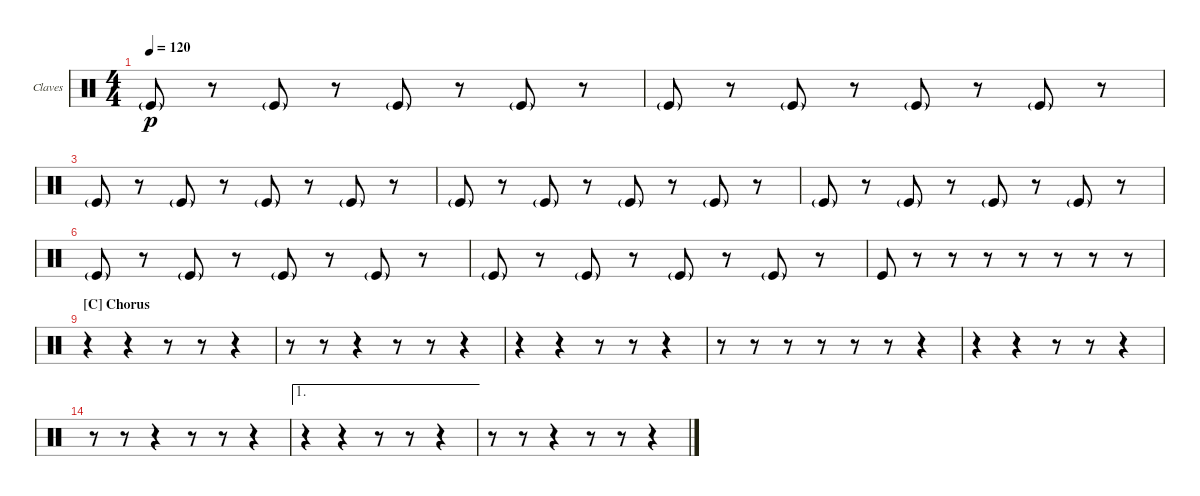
\bracketExtendMode nobrackets
\firstSystemTrackNameOrientation horizontal
\otherSystemsTrackNameOrientation horizontal
\defaultBarNumberDisplay FirstOfSystem
\track ("Claves" "Claves") {instrument percussion}
\staff {score}
\articulation defaults
\ts (4 4)
\scale
0.25
\tempo 120
\accidentals auto
\clef neutral
\ottava regular
\simile none
\scale
0.264151
\ks c "Kick (hit)"{g}.8{dy p}
r.8 "Kick (hit)"{g}.8 r.8 "Kick (hit)"{g}.8 r.8 "Kick (hit)"{g}.8 r.8 |
\scale
0.25
\scale
0.245283 "Kick (hit)"{g}.8 r.8 "Kick (hit)"{g}.8 r.8 "Kick (hit)"{g}.8 r.8 "Kick (hit)"{g}.8 r.8 |
\scale
0.25
\scale
0.245283 "Kick (hit)"{g}.8 r.8 "Kick (hit)"{g}.8 r.8 "Kick (hit)"{g}.8 r.8 "Kick (hit)"{g}.8 r.8 |
\scale
0.25
\scale
0.245283 "Kick (hit)"{g}.8 r.8 "Kick (hit)"{g}.8 r.8 "Kick (hit)"{g}.8 r.8 "Kick (hit)"{g}.8 r.8 |
\scale
0.21875
\scale
0.197269 "Kick (hit)"{g}.8 r.8 "Kick (hit)"{g}.8 r.8 "Kick (hit)"{g}.8 r.8 "Kick (hit)"{g}.8 r.8 |
\scale
0.21875
\scale
0.227618 "Kick (hit)"{g}.8 r.8 "Kick (hit)"{g}.8 r.8 "Kick (hit)"{g}.8 r.8 "Kick (hit)"{g}.8 r.8 |
\scale
0.21875
\scale
0.212443 "Kick (hit)"{g}.8 r.8 "Kick (hit)"{g}.8 r.8 "Kick (hit)"{g}.8 r.8 "Kick (hit)"{g}.8 r.8 |
\scale
0.34375
\scale
0.362671 "Kick (hit)".8 r.8 r.8 r.8 r.8 r.8 r.8 r.8 |
\section ("C" "Chorus")
\scale
0.25
\scale
0.236364 r.4 r.4 r.8 r.8 r.4 |
\scale
0.25
\scale
0.254545 r.8 r.8 r.4 r.8 r.8 r.4 |
\scale
0.25
\scale
0.236364 r.4 r.4 r.8 r.8 r.4 |
\scale
0.25
\scale
0.272727 r.8 r.8 r.8 r.8 r.8 r.8 r.4 |
\scale
0.240741 r.4 r.4 r.8 r.8 r.4 |
\scale
0.259259 r.8 r.8 r.4 r.8 r.8 r.4 |
\ae 1
\scale
0.240741 r.4 r.4 r.8 r.8 r.4 |
\scale
0.259259 r.8 r.8 r.4 r.8 r.8 r.4
